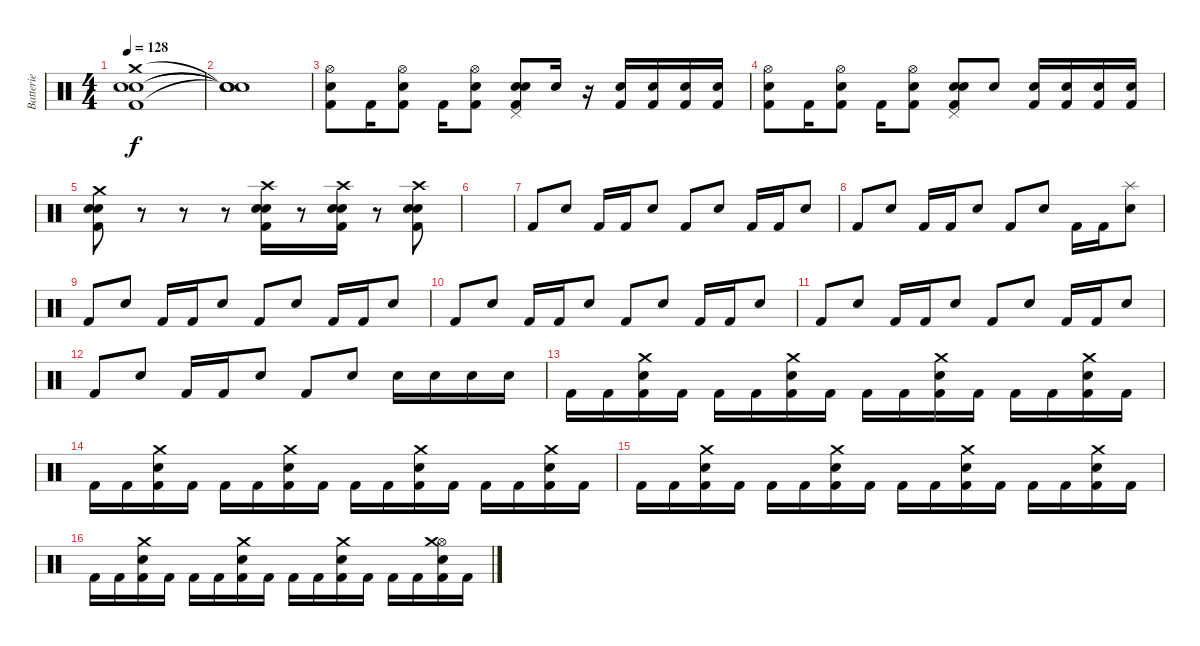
\track ("Batterie" "Batterie") {instrument percussion}
\staff {score}
\articulation defaults
\ts (4 4)
\tempo 128
\clef neutral
\ks c
("Crash medium (hit)" "Electric Snare (hit)" "Snare (hit) 2" "Kick (hit) 2").1{dy f} |
("Snare (hit)"{t} "Snare (hit)"{t} "Snare (hit)"{t} "Snare (hit)"{t}).1 |
("Hi-Hat (open)" "Electric Snare (hit)" "Kick (hit) 2").8 "Kick (hit) 2".16 ("Hi-Hat (open)" "Electric Snare (hit)" "Kick (hit) 2").8 "Kick (hit) 2".16 ("Hi-Hat (open)" "Electric Snare (hit)" "Kick (hit) 2").8 ("Pedal Hi-Hat (hit)" "Kick (hit) 2" "Snare (hit) 2" "Electric Snare (hit)").8 "Electric Snare (hit)".16 r.16 ("Kick (hit) 2" "Electric Snare (hit)").16 ("Kick (hit) 2" "Electric Snare (hit)").16 ("Kick (hit) 2" "Electric Snare (hit)").16 ("Kick (hit) 2" "Electric Snare (hit)").16 |
("Hi-Hat (open)" "Electric Snare (hit)" "Kick (hit) 2").8 "Kick (hit) 2".16 ("Hi-Hat (open)" "Electric Snare (hit)" "Kick (hit) 2").8 "Kick (hit) 2".16 ("Hi-Hat (open)" "Electric Snare (hit)" "Kick (hit) 2").8 ("Pedal Hi-Hat (hit)" "Kick (hit) 2" "Snare (hit) 2" "Electric Snare (hit)").8 "Electric Snare (hit)".8 ("Kick (hit) 2" "Electric Snare (hit)").16 ("Kick (hit) 2" "Electric Snare (hit)").16 ("Kick (hit) 2" "Electric Snare (hit)").16 ("Kick (hit) 2" "Electric Snare (hit)").16 |
("Crash medium (hit)" "Snare (hit) 2" "Electric Snare (hit)" "Kick (hit) 2").8 r.8 r.8 r.8 ("Crash high (hit)" "Snare (hit) 2" "Electric Snare (hit)" "Kick (hit) 2").16 r.8 ("Crash high (hit)" "Snare (hit) 2" "Electric Snare (hit)" "Kick (hit) 2").16 r.8 ("Crash high (hit)" "Snare (hit) 2" "Electric Snare (hit)" "Kick (hit) 2").8 |
|
"Kick (hit) 2".8 "Electric Snare (hit)".8 "Kick (hit) 2".16 "Kick (hit) 2".16 "Electric Snare (hit)".8 "Kick (hit) 2".8 "Electric Snare (hit)".8 "Kick (hit) 2".16 "Kick (hit) 2".16 "Electric Snare (hit)".8 |
"Kick (hit) 2".8 "Electric Snare (hit)".8 "Kick (hit) 2".16 "Kick (hit) 2".16 "Electric Snare (hit)".8 "Kick (hit) 2".8 "Electric Snare (hit)".8 "Kick (hit) 2".16 "Kick (hit) 2".16 ("Splash (hit)" "Electric Snare (hit)").8 |
"Kick (hit) 2".8 "Electric Snare (hit)".8 "Kick (hit) 2".16 "Kick (hit) 2".16 "Electric Snare (hit)".8 "Kick (hit) 2".8 "Electric Snare (hit)".8 "Kick (hit) 2".16 "Kick (hit) 2".16 "Electric Snare (hit)".8 |
"Kick (hit) 2".8 "Electric Snare (hit)".8 "Kick (hit) 2".16 "Kick (hit) 2".16 "Electric Snare (hit)".8 "Kick (hit) 2".8 "Electric Snare (hit)".8 "Kick (hit) 2".16 "Kick (hit) 2".16 "Electric Snare (hit)".8 |
"Kick (hit) 2".8 "Electric Snare (hit)".8 "Kick (hit) 2".16 "Kick (hit) 2".16 "Electric Snare (hit)".8 "Kick (hit) 2".8 "Electric Snare (hit)".8 "Kick (hit) 2".16 "Kick (hit) 2".16 "Electric Snare (hit)".8 |
"Kick (hit) 2".8 "Electric Snare (hit)".8 "Kick (hit) 2".16 "Kick (hit) 2".16 "Electric Snare (hit)".8 "Kick (hit) 2".8 "Electric Snare (hit)".8 "Electric Snare (hit)".16 "Electric Snare (hit)".16 "Electric Snare (hit)".16 "Electric Snare (hit)".16 |
"Kick (hit) 2".16 "Kick (hit) 2".16 ("Crash medium (hit)" "Electric Snare (hit)" "Kick (hit) 2").16 "Kick (hit) 2".16 "Kick (hit) 2".16 "Kick (hit) 2".16 ("Crash medium (hit)" "Electric Snare (hit)" "Kick (hit) 2").16 "Kick (hit) 2".16 "Kick (hit) 2".16 "Kick (hit) 2".16 ("Electric Snare (hit)" "Crash medium (hit)" "Kick (hit) 2").16 "Kick (hit) 2".16 "Kick (hit) 2".16 "Kick (hit) 2".16 ("Crash medium (hit)" "Electric Snare (hit)" "Kick (hit) 2").16 "Kick (hit) 2".16 |
"Kick (hit) 2".16 "Kick (hit) 2".16 ("Crash medium (hit)" "Electric Snare (hit)" "Kick (hit) 2").16 "Kick (hit) 2".16 "Kick (hit) 2".16 "Kick (hit) 2".16 ("Crash medium (hit)" "Electric Snare (hit)" "Kick (hit) 2").16 "Kick (hit) 2".16 "Kick (hit) 2".16 "Kick (hit) 2".16 ("Electric Snare (hit)" "Crash medium (hit)" "Kick (hit) 2").16 "Kick (hit) 2".16 "Kick (hit) 2".16 "Kick (hit) 2".16 ("Crash medium (hit)" "Electric Snare (hit)" "Kick (hit) 2").16 "Kick (hit) 2".16 |
"Kick (hit) 2".16 "Kick (hit) 2".16 ("Crash medium (hit)" "Electric Snare (hit)" "Kick (hit) 2").16 "Kick (hit) 2".16 "Kick (hit) 2".16 "Kick (hit) 2".16 ("Crash medium (hit)" "Electric Snare (hit)" "Kick (hit) 2").16 "Kick (hit) 2".16 "Kick (hit) 2".16 "Kick (hit) 2".16 ("Electric Snare (hit)" "Crash medium (hit)" "Kick (hit) 2").16 "Kick (hit) 2".16 "Kick (hit) 2".16 "Kick (hit) 2".16 ("Crash medium (hit)" "Electric Snare (hit)" "Kick (hit) 2").16 "Kick (hit) 2".16 |
"Kick (hit) 2".16 "Kick (hit) 2".16 ("Crash medium (hit)" "Electric Snare (hit)" "Kick (hit) 2").16 "Kick (hit) 2".16 "Kick (hit) 2".16 "Kick (hit) 2".16 ("Crash medium (hit)" "Electric Snare (hit)" "Kick (hit) 2").16 "Kick (hit) 2".16 "Kick (hit) 2".16 "Kick (hit) 2".16 ("Electric Snare (hit)" "Crash medium (hit)" "Kick (hit) 2").16 "Kick (hit) 2".16 "Kick (hit) 2".16 "Kick (hit) 2".16 ("Hi-Hat (open)" "Crash medium (hit)" "Electric Snare (hit)" "Kick (hit) 2").16 "Kick (hit) 2".16
